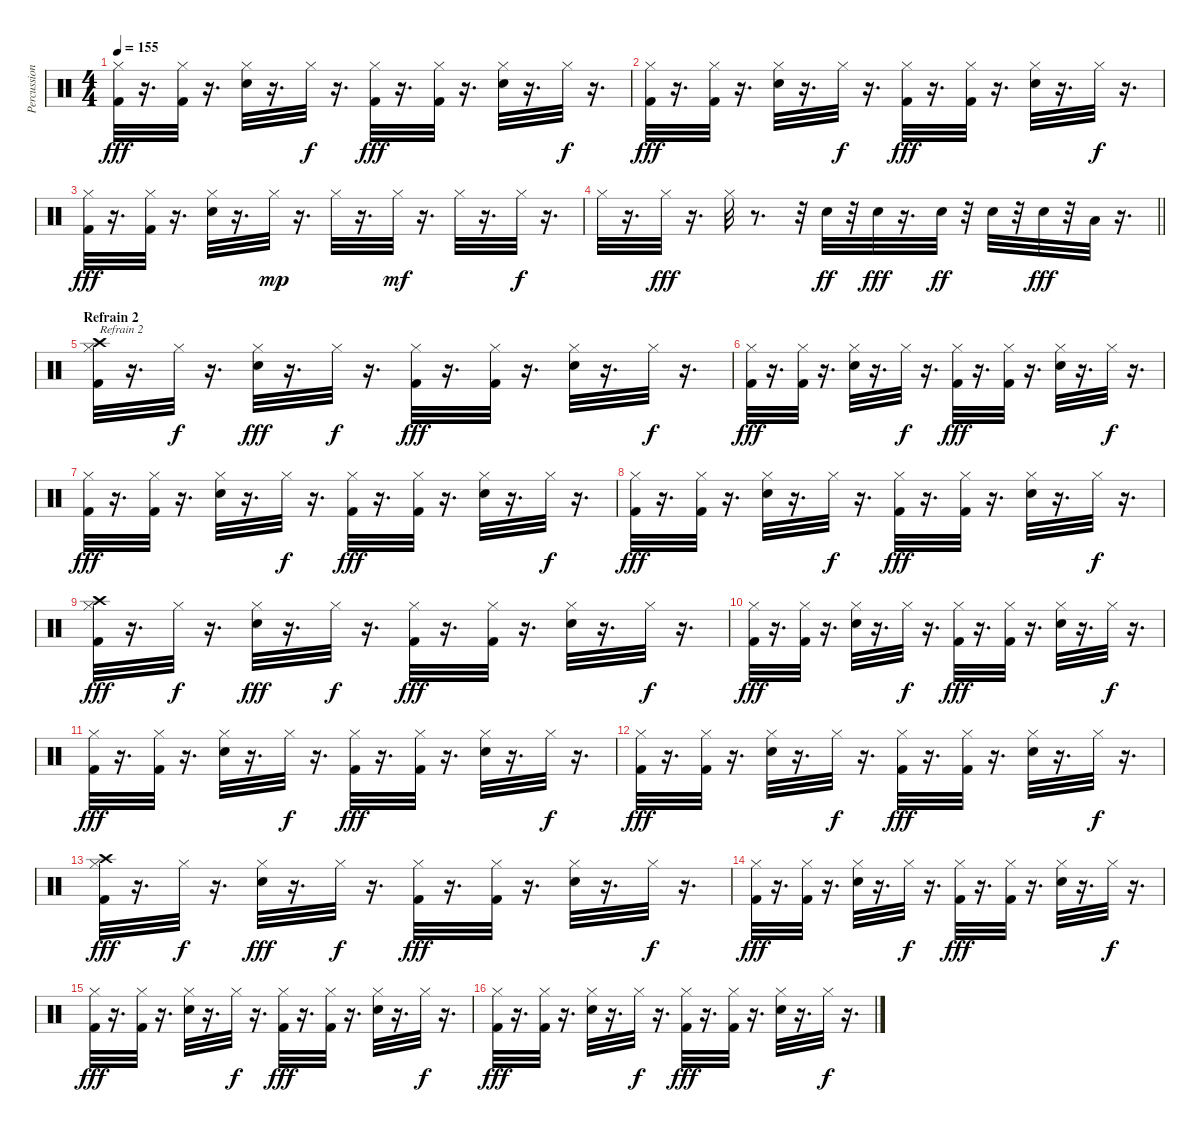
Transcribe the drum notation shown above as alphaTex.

\track ("Percussions" "Percussion") {instrument percussion}
\staff {score}
\articulation defaults
\ts (4 4)
\tempo 155
\clef neutral
\ks c
("Hi-Hat (closed)" "Kick (hit) 2").32{dy fff} r.16{d} ("Kick (hit) 2" "Hi-Hat (closed)").32 r.16{d} ("Hi-Hat (closed)" "Snare (hit) 2").32 r.16{d} "Hi-Hat (closed)".32{dy f} r.16{d} ("Hi-Hat (closed)" "Kick (hit) 2").32{dy fff} r.16{d} ("Hi-Hat (closed)" "Kick (hit) 2").32 r.16{d} ("Hi-Hat (closed)" "Snare (hit) 2").32 r.16{d} "Hi-Hat (closed)".32{dy f} r.16{d} |
("Hi-Hat (closed)" "Kick (hit) 2").32{dy fff} r.16{d} ("Kick (hit) 2" "Hi-Hat (closed)").32 r.16{d} ("Hi-Hat (closed)" "Snare (hit) 2").32 r.16{d} "Hi-Hat (closed)".32{dy f} r.16{d} ("Hi-Hat (closed)" "Kick (hit) 2").32{dy fff} r.16{d} ("Hi-Hat (closed)" "Kick (hit) 2").32 r.16{d} ("Hi-Hat (closed)" "Snare (hit) 2").32 r.16{d} "Hi-Hat (closed)".32{dy f} r.16{d} |
("Hi-Hat (closed)" "Kick (hit) 2").32{dy fff} r.16{d} ("Kick (hit) 2" "Hi-Hat (closed)").32 r.16{d} ("Hi-Hat (closed)" "Snare (hit) 2").32 r.16{d} "Hi-Hat (closed)".32{dy mp} r.16{d} "Hi-Hat (closed)".32 r.16{d} "Hi-Hat (closed)".32{dy mf} r.16{d} "Hi-Hat (closed)".32 r.16{d} "Hi-Hat (closed)".32{dy f} r.16{d} |
\barLineRight lightlight "Hi-Hat (closed)".32
r.16{d} "Hi-Hat (closed)".32{dy fff} r.16{d} "Hi-Hat (closed)".32 r.8{d} r.32 "Snare (hit) 2".32{dy ff} r.32 "Snare (hit) 2".32{dy fff} r.16{d} "Snare (hit) 2".32{dy ff} r.32 "Snare (hit) 2".32 r.32 "Snare (hit) 2".32{dy fff} r.32 "Low Floor Tom (hit)".32 r.16{d} |
\section ("" "Refrain 2")
("Crash high (hit)" "Hi-Hat (closed)" "Kick (hit) 2").32{txt "Refrain 2 "} r.16{d} "Hi-Hat (closed)".32{dy f} r.16{d} ("Hi-Hat (closed)" "Snare (hit) 2").32{dy fff} r.16{d} "Hi-Hat (closed)".32{dy f} r.16{d} ("Hi-Hat (closed)" "Kick (hit) 2").32{dy fff} r.16{d} ("Hi-Hat (closed)" "Kick (hit) 2").32 r.16{d} ("Hi-Hat (closed)" "Snare (hit) 2").32 r.16{d} "Hi-Hat (closed)".32{dy f} r.16{d} |
("Hi-Hat (closed)" "Kick (hit) 2").32{dy fff} r.16{d} ("Kick (hit) 2" "Hi-Hat (closed)").32 r.16{d} ("Hi-Hat (closed)" "Snare (hit) 2").32 r.16{d} "Hi-Hat (closed)".32{dy f} r.16{d} ("Hi-Hat (closed)" "Kick (hit) 2").32{dy fff} r.16{d} ("Hi-Hat (closed)" "Kick (hit) 2").32 r.16{d} ("Hi-Hat (closed)" "Snare (hit) 2").32 r.16{d} "Hi-Hat (closed)".32{dy f} r.16{d} |
("Hi-Hat (closed)" "Kick (hit) 2").32{dy fff} r.16{d} ("Kick (hit) 2" "Hi-Hat (closed)").32 r.16{d} ("Hi-Hat (closed)" "Snare (hit) 2").32 r.16{d} "Hi-Hat (closed)".32{dy f} r.16{d} ("Hi-Hat (closed)" "Kick (hit) 2").32{dy fff} r.16{d} ("Hi-Hat (closed)" "Kick (hit) 2").32 r.16{d} ("Hi-Hat (closed)" "Snare (hit) 2").32 r.16{d} "Hi-Hat (closed)".32{dy f} r.16{d} |
("Hi-Hat (closed)" "Kick (hit) 2").32{dy fff} r.16{d} ("Kick (hit) 2" "Hi-Hat (closed)").32 r.16{d} ("Hi-Hat (closed)" "Snare (hit) 2").32 r.16{d} "Hi-Hat (closed)".32{dy f} r.16{d} ("Hi-Hat (closed)" "Kick (hit) 2").32{dy fff} r.16{d} ("Hi-Hat (closed)" "Kick (hit) 2").32 r.16{d} ("Hi-Hat (closed)" "Snare (hit) 2").32 r.16{d} "Hi-Hat (closed)".32{dy f} r.16{d} |
("Crash high (hit)" "Hi-Hat (closed)" "Kick (hit) 2").32{dy fff} r.16{d} "Hi-Hat (closed)".32{dy f} r.16{d} ("Hi-Hat (closed)" "Snare (hit) 2").32{dy fff} r.16{d} "Hi-Hat (closed)".32{dy f} r.16{d} ("Hi-Hat (closed)" "Kick (hit) 2").32{dy fff} r.16{d} ("Hi-Hat (closed)" "Kick (hit) 2").32 r.16{d} ("Hi-Hat (closed)" "Snare (hit) 2").32 r.16{d} "Hi-Hat (closed)".32{dy f} r.16{d} |
("Hi-Hat (closed)" "Kick (hit) 2").32{dy fff} r.16{d} ("Kick (hit) 2" "Hi-Hat (closed)").32 r.16{d} ("Hi-Hat (closed)" "Snare (hit) 2").32 r.16{d} "Hi-Hat (closed)".32{dy f} r.16{d} ("Hi-Hat (closed)" "Kick (hit) 2").32{dy fff} r.16{d} ("Hi-Hat (closed)" "Kick (hit) 2").32 r.16{d} ("Hi-Hat (closed)" "Snare (hit) 2").32 r.16{d} "Hi-Hat (closed)".32{dy f} r.16{d} |
("Hi-Hat (closed)" "Kick (hit) 2").32{dy fff} r.16{d} ("Kick (hit) 2" "Hi-Hat (closed)").32 r.16{d} ("Hi-Hat (closed)" "Snare (hit) 2").32 r.16{d} "Hi-Hat (closed)".32{dy f} r.16{d} ("Hi-Hat (closed)" "Kick (hit) 2").32{dy fff} r.16{d} ("Hi-Hat (closed)" "Kick (hit) 2").32 r.16{d} ("Hi-Hat (closed)" "Snare (hit) 2").32 r.16{d} "Hi-Hat (closed)".32{dy f} r.16{d} |
("Hi-Hat (closed)" "Kick (hit) 2").32{dy fff} r.16{d} ("Kick (hit) 2" "Hi-Hat (closed)").32 r.16{d} ("Hi-Hat (closed)" "Snare (hit) 2").32 r.16{d} "Hi-Hat (closed)".32{dy f} r.16{d} ("Hi-Hat (closed)" "Kick (hit) 2").32{dy fff} r.16{d} ("Hi-Hat (closed)" "Kick (hit) 2").32 r.16{d} ("Hi-Hat (closed)" "Snare (hit) 2").32 r.16{d} "Hi-Hat (closed)".32{dy f} r.16{d} |
("Crash high (hit)" "Hi-Hat (closed)" "Kick (hit) 2").32{dy fff} r.16{d} "Hi-Hat (closed)".32{dy f} r.16{d} ("Hi-Hat (closed)" "Snare (hit) 2").32{dy fff} r.16{d} "Hi-Hat (closed)".32{dy f} r.16{d} ("Hi-Hat (closed)" "Kick (hit) 2").32{dy fff} r.16{d} ("Hi-Hat (closed)" "Kick (hit) 2").32 r.16{d} ("Hi-Hat (closed)" "Snare (hit) 2").32 r.16{d} "Hi-Hat (closed)".32{dy f} r.16{d} |
("Hi-Hat (closed)" "Kick (hit) 2").32{dy fff} r.16{d} ("Kick (hit) 2" "Hi-Hat (closed)").32 r.16{d} ("Hi-Hat (closed)" "Snare (hit) 2").32 r.16{d} "Hi-Hat (closed)".32{dy f} r.16{d} ("Hi-Hat (closed)" "Kick (hit) 2").32{dy fff} r.16{d} ("Hi-Hat (closed)" "Kick (hit) 2").32 r.16{d} ("Hi-Hat (closed)" "Snare (hit) 2").32 r.16{d} "Hi-Hat (closed)".32{dy f} r.16{d} |
("Hi-Hat (closed)" "Kick (hit) 2").32{dy fff} r.16{d} ("Kick (hit) 2" "Hi-Hat (closed)").32 r.16{d} ("Hi-Hat (closed)" "Snare (hit) 2").32 r.16{d} "Hi-Hat (closed)".32{dy f} r.16{d} ("Hi-Hat (closed)" "Kick (hit) 2").32{dy fff} r.16{d} ("Hi-Hat (closed)" "Kick (hit) 2").32 r.16{d} ("Hi-Hat (closed)" "Snare (hit) 2").32 r.16{d} "Hi-Hat (closed)".32{dy f} r.16{d} |
("Hi-Hat (closed)" "Kick (hit) 2").32{dy fff} r.16{d} ("Kick (hit) 2" "Hi-Hat (closed)").32 r.16{d} ("Hi-Hat (closed)" "Snare (hit) 2").32 r.16{d} "Hi-Hat (closed)".32{dy f} r.16{d} ("Hi-Hat (closed)" "Kick (hit) 2").32{dy fff} r.16{d} ("Hi-Hat (closed)" "Kick (hit) 2").32 r.16{d} ("Hi-Hat (closed)" "Snare (hit) 2").32 r.16{d} "Hi-Hat (closed)".32{dy f} r.16{d}
